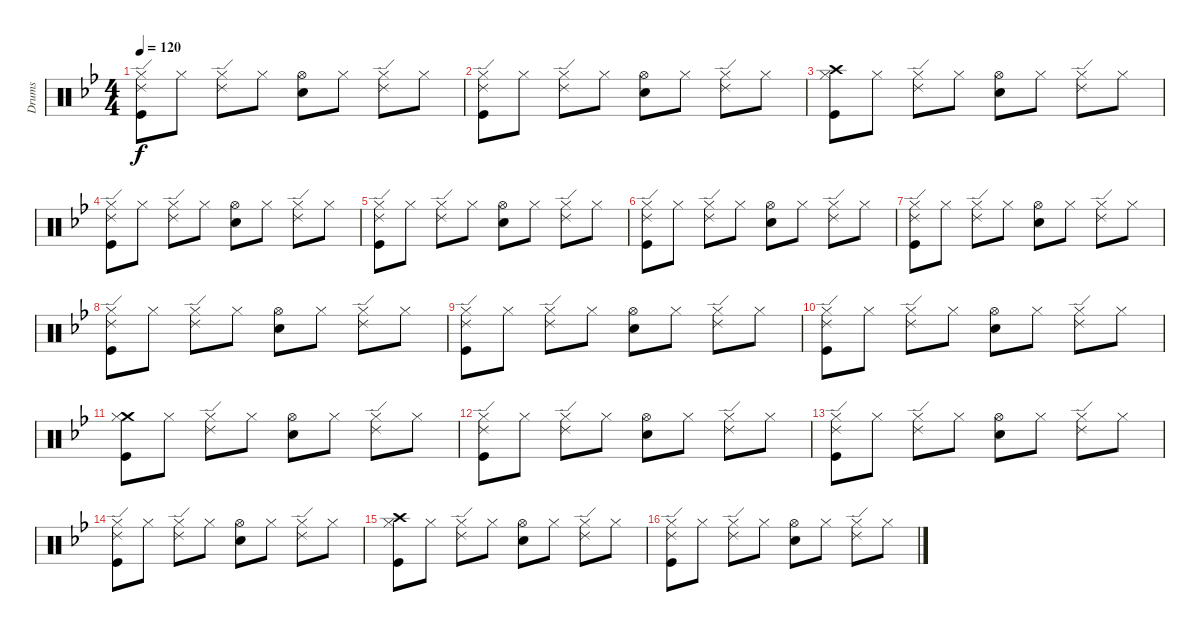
\track ("Drums" "Drums") {instrument percussion}
\staff {score}
\articulation defaults
\ts (4 4)
\tempo 120
\clef neutral
\ks gminor
("Hi-Hat (closed)" "Ride (edge) 2" "Kick (hit)").8{dy f} "Hi-Hat (closed)".8 ("Hi-Hat (closed)" "Ride (edge) 2").8 "Hi-Hat (closed)".8 ("Hi-Hat (open)" "Electric Snare (hit)").8 "Hi-Hat (closed)".8 ("Hi-Hat (closed)" "Ride (edge) 2").8 "Hi-Hat (closed)".8 |
("Hi-Hat (closed)" "Ride (edge) 2" "Kick (hit)").8 "Hi-Hat (closed)".8 ("Hi-Hat (closed)" "Ride (edge) 2").8 "Hi-Hat (closed)".8 ("Hi-Hat (open)" "Electric Snare (hit)").8 "Hi-Hat (closed)".8 ("Hi-Hat (closed)" "Ride (edge) 2").8 "Hi-Hat (closed)".8 |
("Crash high (hit)" "Hi-Hat (closed)" "Kick (hit)").8 "Hi-Hat (closed)".8 ("Hi-Hat (closed)" "Ride (edge) 2").8 "Hi-Hat (closed)".8 ("Hi-Hat (open)" "Electric Snare (hit)").8 "Hi-Hat (closed)".8 ("Hi-Hat (closed)" "Ride (edge) 2").8 "Hi-Hat (closed)".8 |
("Hi-Hat (closed)" "Ride (edge) 2" "Kick (hit)").8 "Hi-Hat (closed)".8 ("Hi-Hat (closed)" "Ride (edge) 2").8 "Hi-Hat (closed)".8 ("Hi-Hat (open)" "Electric Snare (hit)").8 "Hi-Hat (closed)".8 ("Hi-Hat (closed)" "Ride (edge) 2").8 "Hi-Hat (closed)".8 |
("Hi-Hat (closed)" "Ride (edge) 2" "Kick (hit)").8 "Hi-Hat (closed)".8 ("Hi-Hat (closed)" "Ride (edge) 2").8 "Hi-Hat (closed)".8 ("Hi-Hat (open)" "Electric Snare (hit)").8 "Hi-Hat (closed)".8 ("Hi-Hat (closed)" "Ride (edge) 2").8 "Hi-Hat (closed)".8 |
("Hi-Hat (closed)" "Ride (edge) 2" "Kick (hit)").8 "Hi-Hat (closed)".8 ("Hi-Hat (closed)" "Ride (edge) 2").8 "Hi-Hat (closed)".8 ("Hi-Hat (open)" "Electric Snare (hit)").8 "Hi-Hat (closed)".8 ("Hi-Hat (closed)" "Ride (edge) 2").8 "Hi-Hat (closed)".8 |
("Hi-Hat (closed)" "Ride (edge) 2" "Kick (hit)").8 "Hi-Hat (closed)".8 ("Hi-Hat (closed)" "Ride (edge) 2").8 "Hi-Hat (closed)".8 ("Hi-Hat (open)" "Electric Snare (hit)").8 "Hi-Hat (closed)".8 ("Hi-Hat (closed)" "Ride (edge) 2").8 "Hi-Hat (closed)".8 |
("Hi-Hat (closed)" "Ride (edge) 2" "Kick (hit)").8 "Hi-Hat (closed)".8 ("Hi-Hat (closed)" "Ride (edge) 2").8 "Hi-Hat (closed)".8 ("Hi-Hat (open)" "Electric Snare (hit)").8 "Hi-Hat (closed)".8 ("Hi-Hat (closed)" "Ride (edge) 2").8 "Hi-Hat (closed)".8 |
("Hi-Hat (closed)" "Ride (edge) 2" "Kick (hit)").8 "Hi-Hat (closed)".8 ("Hi-Hat (closed)" "Ride (edge) 2").8 "Hi-Hat (closed)".8 ("Hi-Hat (open)" "Electric Snare (hit)").8 "Hi-Hat (closed)".8 ("Hi-Hat (closed)" "Ride (edge) 2").8 "Hi-Hat (closed)".8 |
("Hi-Hat (closed)" "Ride (edge) 2" "Kick (hit)").8 "Hi-Hat (closed)".8 ("Hi-Hat (closed)" "Ride (edge) 2").8 "Hi-Hat (closed)".8 ("Hi-Hat (open)" "Electric Snare (hit)").8 "Hi-Hat (closed)".8 ("Hi-Hat (closed)" "Ride (edge) 2").8 "Hi-Hat (closed)".8 |
("Crash medium (hit)" "Hi-Hat (closed)" "Kick (hit)").8 "Hi-Hat (closed)".8 ("Hi-Hat (closed)" "Ride (edge) 2").8 "Hi-Hat (closed)".8 ("Hi-Hat (open)" "Electric Snare (hit)").8 "Hi-Hat (closed)".8 ("Hi-Hat (closed)" "Ride (edge) 2").8 "Hi-Hat (closed)".8 |
("Hi-Hat (closed)" "Ride (edge) 2" "Kick (hit)").8 "Hi-Hat (closed)".8 ("Hi-Hat (closed)" "Ride (edge) 2").8 "Hi-Hat (closed)".8 ("Hi-Hat (open)" "Electric Snare (hit)").8 "Hi-Hat (closed)".8 ("Hi-Hat (closed)" "Ride (edge) 2").8 "Hi-Hat (closed)".8 |
("Hi-Hat (closed)" "Ride (edge) 2" "Kick (hit)").8 "Hi-Hat (closed)".8 ("Hi-Hat (closed)" "Ride (edge) 2").8 "Hi-Hat (closed)".8 ("Hi-Hat (open)" "Electric Snare (hit)").8 "Hi-Hat (closed)".8 ("Hi-Hat (closed)" "Ride (edge) 2").8 "Hi-Hat (closed)".8 |
("Hi-Hat (closed)" "Ride (edge) 2" "Kick (hit)").8 "Hi-Hat (closed)".8 ("Hi-Hat (closed)" "Ride (edge) 2").8 "Hi-Hat (closed)".8 ("Hi-Hat (open)" "Electric Snare (hit)").8 "Hi-Hat (closed)".8 ("Hi-Hat (closed)" "Ride (edge) 2").8 "Hi-Hat (closed)".8 |
("Crash high (hit)" "Hi-Hat (closed)" "Kick (hit)").8 "Hi-Hat (closed)".8 ("Hi-Hat (closed)" "Ride (edge) 2").8 "Hi-Hat (closed)".8 ("Hi-Hat (open)" "Electric Snare (hit)").8 "Hi-Hat (closed)".8 ("Hi-Hat (closed)" "Ride (edge) 2").8 "Hi-Hat (closed)".8 |
("Hi-Hat (closed)" "Ride (edge) 2" "Kick (hit)").8 "Hi-Hat (closed)".8 ("Hi-Hat (closed)" "Ride (edge) 2").8 "Hi-Hat (closed)".8 ("Hi-Hat (open)" "Electric Snare (hit)").8 "Hi-Hat (closed)".8 ("Hi-Hat (closed)" "Ride (edge) 2").8 "Hi-Hat (closed)".8
